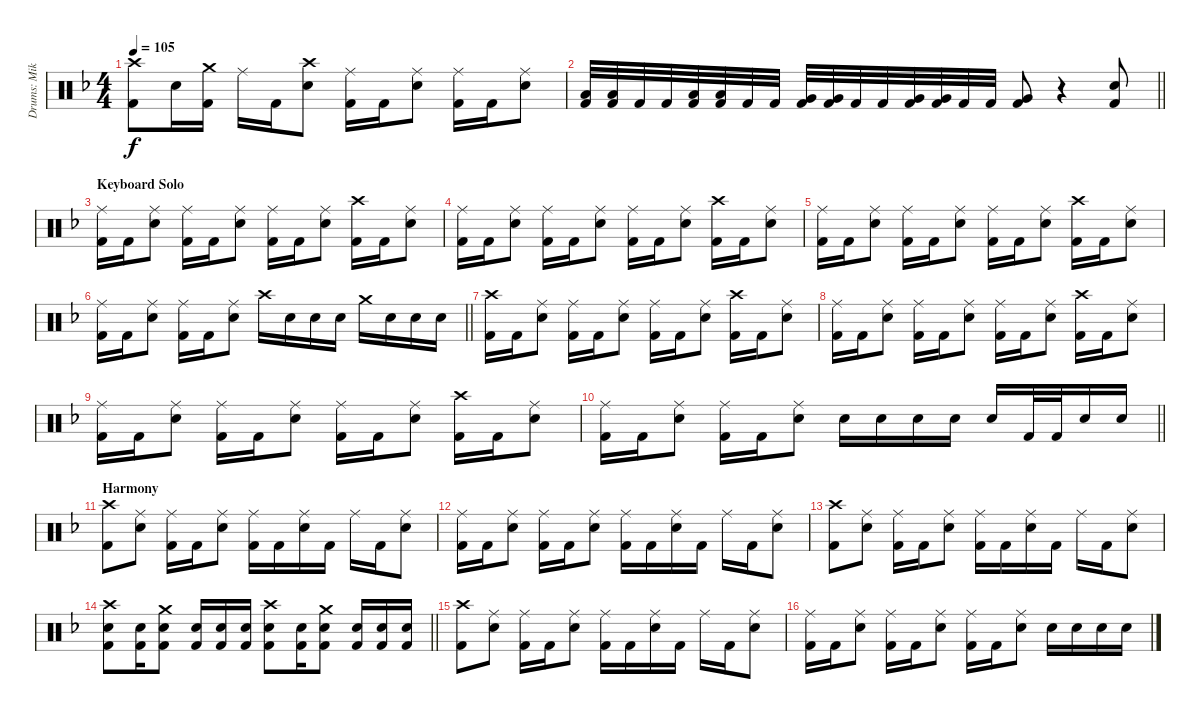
\track ("Drums: Mikko Korsbäck" "Drums: Mik") {instrument percussion}
\staff {score}
\articulation defaults
\ts (4 4)
\tempo 105
\clef neutral
\ks dminor
("Crash high (hit)" "Kick (hit) 2").8{dy f} "Electric Snare (hit)".16 ("Crash medium (hit)" "Kick (hit) 2").16 "Ride (middle)".16 "Kick (hit) 2".16 ("Crash high (hit)" "Electric Snare (hit)").8 ("Ride (middle)" "Kick (hit) 2").16 "Kick (hit) 2".16 ("Ride (middle)" "Electric Snare (hit)").8 ("Ride (middle)" "Kick (hit) 2").16 "Kick (hit) 2".16 ("Ride (middle)" "Electric Snare (hit)").8 |
\barLineRight lightlight
("Low Tom (hit)" "Kick (hit) 2").32 ("Low Tom (hit)" "Kick (hit) 2").32 "Kick (hit) 2".32 "Kick (hit) 2".32 ("Low Tom (hit)" "Kick (hit) 2").32 ("Low Tom (hit)" "Kick (hit) 2").32 "Kick (hit) 2".32 "Kick (hit) 2".32 ("Very Low Tom (hit)" "Kick (hit) 2").32 ("Very Low Tom (hit)" "Kick (hit) 2").32 "Kick (hit) 2".32 "Kick (hit) 2".32 ("Very Low Tom (hit)" "Kick (hit) 2").32 ("Very Low Tom (hit)" "Kick (hit) 2").32 "Kick (hit) 2".32 "Kick (hit) 2".32 ("Very Low Tom (hit)" "Kick (hit) 2").8 r.4 ("Electric Snare (hit)" "Kick (hit) 2").8 |
\section ("" "Keyboard Solo")
("Ride (middle)" "Kick (hit) 2").16 "Kick (hit) 2".16 ("Ride (middle)" "Electric Snare (hit)").8 ("Ride (middle)" "Kick (hit) 2").16 "Kick (hit) 2".16 ("Ride (middle)" "Electric Snare (hit)").8 ("Ride (middle)" "Kick (hit) 2").16 "Kick (hit) 2".16 ("Ride (middle)" "Electric Snare (hit)").8 ("Crash high (hit)" "Kick (hit) 2").16 "Kick (hit) 2".16 ("Ride (middle)" "Electric Snare (hit)").8 |
("Ride (middle)" "Kick (hit) 2").16 "Kick (hit) 2".16 ("Ride (middle)" "Electric Snare (hit)").8 ("Ride (middle)" "Kick (hit) 2").16 "Kick (hit) 2".16 ("Ride (middle)" "Electric Snare (hit)").8 ("Ride (middle)" "Kick (hit) 2").16 "Kick (hit) 2".16 ("Ride (middle)" "Electric Snare (hit)").8 ("Crash high (hit)" "Kick (hit) 2").16 "Kick (hit) 2".16 ("Ride (middle)" "Electric Snare (hit)").8 |
("Ride (middle)" "Kick (hit) 2").16 "Kick (hit) 2".16 ("Ride (middle)" "Electric Snare (hit)").8 ("Ride (middle)" "Kick (hit) 2").16 "Kick (hit) 2".16 ("Ride (middle)" "Electric Snare (hit)").8 ("Ride (middle)" "Kick (hit) 2").16 "Kick (hit) 2".16 ("Ride (middle)" "Electric Snare (hit)").8 ("Crash high (hit)" "Kick (hit) 2").16 "Kick (hit) 2".16 ("Ride (middle)" "Electric Snare (hit)").8 |
\barLineRight lightlight
("Ride (middle)" "Kick (hit) 2").16 "Kick (hit) 2".16 ("Ride (middle)" "Electric Snare (hit)").8 ("Ride (middle)" "Kick (hit) 2").16 "Kick (hit) 2".16 ("Ride (middle)" "Electric Snare (hit)").8 "Crash high (hit)".16 "Electric Snare (hit)".16 "Electric Snare (hit)".16 "Electric Snare (hit)".16 "Crash medium (hit)".16 "Electric Snare (hit)".16 "Electric Snare (hit)".16 "Electric Snare (hit)".16 |
("Crash high (hit)" "Kick (hit) 2").16 "Kick (hit) 2".16 ("Ride (middle)" "Electric Snare (hit)").8 ("Ride (middle)" "Kick (hit) 2").16 "Kick (hit) 2".16 ("Ride (middle)" "Electric Snare (hit)").8 ("Ride (middle)" "Kick (hit) 2").16 "Kick (hit) 2".16 ("Ride (middle)" "Electric Snare (hit)").8 ("Crash high (hit)" "Kick (hit) 2").16 "Kick (hit) 2".16 ("Ride (middle)" "Electric Snare (hit)").8 |
("Ride (middle)" "Kick (hit) 2").16 "Kick (hit) 2".16 ("Ride (middle)" "Electric Snare (hit)").8 ("Ride (middle)" "Kick (hit) 2").16 "Kick (hit) 2".16 ("Ride (middle)" "Electric Snare (hit)").8 ("Ride (middle)" "Kick (hit) 2").16 "Kick (hit) 2".16 ("Ride (middle)" "Electric Snare (hit)").8 ("Crash high (hit)" "Kick (hit) 2").16 "Kick (hit) 2".16 ("Ride (middle)" "Electric Snare (hit)").8 |
("Ride (middle)" "Kick (hit) 2").16 "Kick (hit) 2".16 ("Ride (middle)" "Electric Snare (hit)").8 ("Ride (middle)" "Kick (hit) 2").16 "Kick (hit) 2".16 ("Ride (middle)" "Electric Snare (hit)").8 ("Ride (middle)" "Kick (hit) 2").16 "Kick (hit) 2".16 ("Ride (middle)" "Electric Snare (hit)").8 ("Crash high (hit)" "Kick (hit) 2").16 "Kick (hit) 2".16 ("Ride (middle)" "Electric Snare (hit)").8 |
\barLineRight lightlight
("Ride (middle)" "Kick (hit) 2").16 "Kick (hit) 2".16 ("Ride (middle)" "Electric Snare (hit)").8 ("Ride (middle)" "Kick (hit) 2").16 "Kick (hit) 2".16 ("Ride (middle)" "Electric Snare (hit)").8 "Electric Snare (hit)".16 "Electric Snare (hit)".16 "Electric Snare (hit)".16 "Electric Snare (hit)".16 "Electric Snare (hit)".16 "Kick (hit) 2".32 "Kick (hit) 2".32 "Electric Snare (hit)".16 "Electric Snare (hit)".16 |
\section ("" "Harmony")
("Crash high (hit)" "Kick (hit) 2").8 ("Ride (middle)" "Electric Snare (hit)").8 ("Ride (middle)" "Kick (hit) 2").16 "Kick (hit) 2".16 ("Ride (middle)" "Electric Snare (hit)").8 ("Ride (middle)" "Kick (hit) 2").16 "Kick (hit) 2".16 ("Ride (middle)" "Electric Snare (hit)").16 "Kick (hit) 2".16 "Ride (middle)".16 "Kick (hit) 2".16 ("Ride (middle)" "Electric Snare (hit)").8 |
("Ride (middle)" "Kick (hit) 2").16 "Kick (hit) 2".16 ("Ride (middle)" "Electric Snare (hit)").8 ("Ride (middle)" "Kick (hit) 2").16 "Kick (hit) 2".16 ("Ride (middle)" "Electric Snare (hit)").8 ("Ride (middle)" "Kick (hit) 2").16 "Kick (hit) 2".16 ("Ride (middle)" "Electric Snare (hit)").16 "Kick (hit) 2".16 "Ride (middle)".16 "Kick (hit) 2".16 ("Ride (middle)" "Electric Snare (hit)").8 |
("Crash high (hit)" "Kick (hit) 2").8 ("Ride (middle)" "Electric Snare (hit)").8 ("Ride (middle)" "Kick (hit) 2").16 "Kick (hit) 2".16 ("Ride (middle)" "Electric Snare (hit)").8 ("Ride (middle)" "Kick (hit) 2").16 "Kick (hit) 2".16 ("Ride (middle)" "Electric Snare (hit)").16 "Kick (hit) 2".16 "Ride (middle)".16 "Kick (hit) 2".16 ("Ride (middle)" "Electric Snare (hit)").8 |
\barLineRight lightlight
("Crash high (hit)" "Electric Snare (hit)" "Kick (hit) 2").8 ("Electric Snare (hit)" "Kick (hit) 2").16 ("Crash medium (hit)" "Electric Snare (hit)" "Kick (hit) 2").8 ("Electric Snare (hit)" "Kick (hit) 2").16 ("Electric Snare (hit)" "Kick (hit) 2").16 ("Electric Snare (hit)" "Kick (hit) 2").16 ("Crash high (hit)" "Electric Snare (hit)" "Kick (hit) 2").8 ("Electric Snare (hit)" "Kick (hit) 2").16 ("Crash medium (hit)" "Electric Snare (hit)" "Kick (hit) 2").8 ("Electric Snare (hit)" "Kick (hit) 2").16 ("Electric Snare (hit)" "Kick (hit) 2").16 ("Electric Snare (hit)" "Kick (hit) 2").16 |
("Crash high (hit)" "Kick (hit) 2").8 ("Ride (middle)" "Electric Snare (hit)").8 ("Ride (middle)" "Kick (hit) 2").16 "Kick (hit) 2".16 ("Ride (middle)" "Electric Snare (hit)").8 ("Ride (middle)" "Kick (hit) 2").16 "Kick (hit) 2".16 ("Ride (middle)" "Electric Snare (hit)").16 "Kick (hit) 2".16 "Ride (middle)".16 "Kick (hit) 2".16 ("Ride (middle)" "Electric Snare (hit)").8 |
("Ride (middle)" "Kick (hit) 2").16 "Kick (hit) 2".16 ("Ride (middle)" "Electric Snare (hit)").8 ("Ride (middle)" "Kick (hit) 2").16 "Kick (hit) 2".16 ("Ride (middle)" "Electric Snare (hit)").8 ("Ride (middle)" "Kick (hit) 2").16 "Kick (hit) 2".16 ("Ride (middle)" "Electric Snare (hit)").8 "Electric Snare (hit)".16 "Electric Snare (hit)".16 "Electric Snare (hit)".16 "Electric Snare (hit)".16
